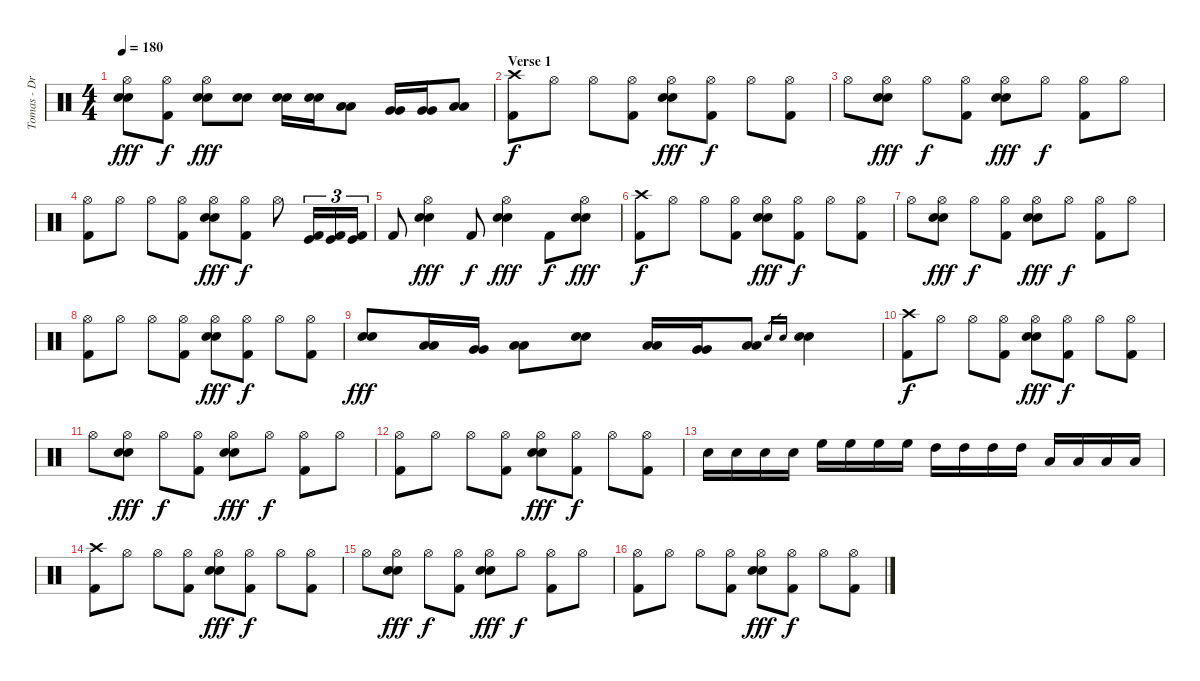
\track ("Tomas - Drums" "Tomas - Dr") {instrument percussion}
\staff {score}
\articulation defaults
\ts (4 4)
\tempo 180
\clef neutral
\ks c
("Hi-Hat (open)" "Electric Snare (hit)" "Electric Snare (hit)").8{dy fff} ("Hi-Hat (open)" "Kick (hit) 2").8{dy f} ("Hi-Hat (open)" "Electric Snare (hit)" "Electric Snare (hit)").8{dy fff} ("Electric Snare (hit)" "Electric Snare (hit)").8 ("Electric Snare (hit)" "Electric Snare (hit)").16 ("Electric Snare (hit)" "Electric Snare (hit)").16 ("Low Tom (hit)" "Low Tom (hit)").8 ("Very Low Tom (hit)" "Very Low Tom (hit)").16 ("Very Low Tom (hit)" "Very Low Tom (hit)").16 ("Low Floor Tom (hit)" "Low Floor Tom (hit)").8 |
\section ("" "Verse 1")
("Crash high (hit)" "Kick (hit) 2").8{dy f} "Hi-Hat (open)".8 "Hi-Hat (open)".8 ("Hi-Hat (open)" "Kick (hit) 2").8 ("Hi-Hat (open)" "Electric Snare (hit)" "Electric Snare (hit)").8{dy fff} ("Hi-Hat (open)" "Kick (hit) 2").8{dy f} "Hi-Hat (open)".8 ("Hi-Hat (open)" "Kick (hit) 2").8 |
"Hi-Hat (open)".8 ("Hi-Hat (open)" "Electric Snare (hit)" "Electric Snare (hit)").8{dy fff} "Hi-Hat (open)".8{dy f} ("Hi-Hat (open)" "Kick (hit) 2").8 ("Hi-Hat (open)" "Electric Snare (hit)" "Electric Snare (hit)").8{dy fff} "Hi-Hat (open)".8{dy f} ("Hi-Hat (open)" "Kick (hit) 2").8 "Hi-Hat (open)".8 |
("Hi-Hat (open)" "Kick (hit) 2").8 "Hi-Hat (open)".8 "Hi-Hat (open)".8 ("Hi-Hat (open)" "Kick (hit) 2").8 ("Hi-Hat (open)" "Electric Snare (hit)" "Electric Snare (hit)").8{dy fff} ("Hi-Hat (open)" "Kick (hit) 2").8{dy f} "Hi-Hat (open)".8 ("Kick (hit)" "Kick (hit) 2").16{tu (3 2)} ("Kick (hit)" "Kick (hit) 2").16{tu (3 2)} ("Kick (hit)" "Kick (hit) 2").16{tu (3 2)} |
"Kick (hit) 2".8 ("Hi-Hat (open)" "Electric Snare (hit)" "Electric Snare (hit)").4{dy fff} "Kick (hit) 2".8{dy f} ("Hi-Hat (open)" "Electric Snare (hit)" "Electric Snare (hit)").4{dy fff} "Kick (hit) 2".8{dy f} ("Hi-Hat (open)" "Electric Snare (hit)" "Electric Snare (hit)").8{dy fff} |
("Crash high (hit)" "Kick (hit) 2").8{dy f} "Hi-Hat (open)".8 "Hi-Hat (open)".8 ("Hi-Hat (open)" "Kick (hit) 2").8 ("Hi-Hat (open)" "Electric Snare (hit)" "Electric Snare (hit)").8{dy fff} ("Hi-Hat (open)" "Kick (hit) 2").8{dy f} "Hi-Hat (open)".8 ("Hi-Hat (open)" "Kick (hit) 2").8 |
"Hi-Hat (open)".8 ("Hi-Hat (open)" "Electric Snare (hit)" "Electric Snare (hit)").8{dy fff} "Hi-Hat (open)".8{dy f} ("Hi-Hat (open)" "Kick (hit) 2").8 ("Hi-Hat (open)" "Electric Snare (hit)" "Electric Snare (hit)").8{dy fff} "Hi-Hat (open)".8{dy f} ("Hi-Hat (open)" "Kick (hit) 2").8 "Hi-Hat (open)".8 |
("Hi-Hat (open)" "Kick (hit) 2").8 "Hi-Hat (open)".8 "Hi-Hat (open)".8 ("Hi-Hat (open)" "Kick (hit) 2").8 ("Hi-Hat (open)" "Electric Snare (hit)" "Electric Snare (hit)").8{dy fff} ("Hi-Hat (open)" "Kick (hit) 2").8{dy f} "Hi-Hat (open)".8 ("Hi-Hat (open)" "Kick (hit) 2").8 |
("Electric Snare (hit)" "Electric Snare (hit)").8{dy fff} ("Low Tom (hit)" "Low Tom (hit)").16 ("Very Low Tom (hit)" "Very Low Tom (hit)").16 ("Low Floor Tom (hit)" "Low Floor Tom (hit)").8 ("Electric Snare (hit)" "Electric Snare (hit)").8 ("Low Tom (hit)" "Low Tom (hit)").16 ("Very Low Tom (hit)" "Very Low Tom (hit)").16 ("Low Floor Tom (hit)" "Low Floor Tom (hit)").8 "Electric Snare (hit)".16{gr} "Electric Snare (hit)".16{gr} ("Electric Snare (hit)" "Electric Snare (hit)").4 |
("Crash high (hit)" "Kick (hit) 2").8{dy f} "Hi-Hat (open)".8 "Hi-Hat (open)".8 ("Hi-Hat (open)" "Kick (hit) 2").8 ("Hi-Hat (open)" "Electric Snare (hit)" "Electric Snare (hit)").8{dy fff} ("Hi-Hat (open)" "Kick (hit) 2").8{dy f} "Hi-Hat (open)".8 ("Hi-Hat (open)" "Kick (hit) 2").8 |
"Hi-Hat (open)".8 ("Hi-Hat (open)" "Electric Snare (hit)" "Electric Snare (hit)").8{dy fff} "Hi-Hat (open)".8{dy f} ("Hi-Hat (open)" "Kick (hit) 2").8 ("Hi-Hat (open)" "Electric Snare (hit)" "Electric Snare (hit)").8{dy fff} "Hi-Hat (open)".8{dy f} ("Hi-Hat (open)" "Kick (hit) 2").8 "Hi-Hat (open)".8 |
("Hi-Hat (open)" "Kick (hit) 2").8 "Hi-Hat (open)".8 "Hi-Hat (open)".8 ("Hi-Hat (open)" "Kick (hit) 2").8 ("Hi-Hat (open)" "Electric Snare (hit)" "Electric Snare (hit)").8{dy fff} ("Hi-Hat (open)" "Kick (hit) 2").8{dy f} "Hi-Hat (open)".8 ("Hi-Hat (open)" "Kick (hit) 2").8 |
"Electric Snare (hit)".16 "Electric Snare (hit)".16 "Electric Snare (hit)".16 "Electric Snare (hit)".16 "High Floor Tom (hit)".16 "High Floor Tom (hit)".16 "High Floor Tom (hit)".16 "High Floor Tom (hit)".16 "High Tom (hit)".16 "High Tom (hit)".16 "High Tom (hit)".16 "High Tom (hit)".16 "Low Tom (hit)".16 "Low Tom (hit)".16 "Low Tom (hit)".16 "Low Tom (hit)".16 |
("Crash high (hit)" "Kick (hit) 2").8 "Hi-Hat (open)".8 "Hi-Hat (open)".8 ("Hi-Hat (open)" "Kick (hit) 2").8 ("Hi-Hat (open)" "Electric Snare (hit)" "Electric Snare (hit)").8{dy fff} ("Hi-Hat (open)" "Kick (hit) 2").8{dy f} "Hi-Hat (open)".8 ("Hi-Hat (open)" "Kick (hit) 2").8 |
"Hi-Hat (open)".8 ("Hi-Hat (open)" "Electric Snare (hit)" "Electric Snare (hit)").8{dy fff} "Hi-Hat (open)".8{dy f} ("Hi-Hat (open)" "Kick (hit) 2").8 ("Hi-Hat (open)" "Electric Snare (hit)" "Electric Snare (hit)").8{dy fff} "Hi-Hat (open)".8{dy f} ("Hi-Hat (open)" "Kick (hit) 2").8 "Hi-Hat (open)".8 |
("Hi-Hat (open)" "Kick (hit) 2").8 "Hi-Hat (open)".8 "Hi-Hat (open)".8 ("Hi-Hat (open)" "Kick (hit) 2").8 ("Hi-Hat (open)" "Electric Snare (hit)" "Electric Snare (hit)").8{dy fff} ("Hi-Hat (open)" "Kick (hit) 2").8{dy f} "Hi-Hat (open)".8 ("Hi-Hat (open)" "Kick (hit) 2").8
